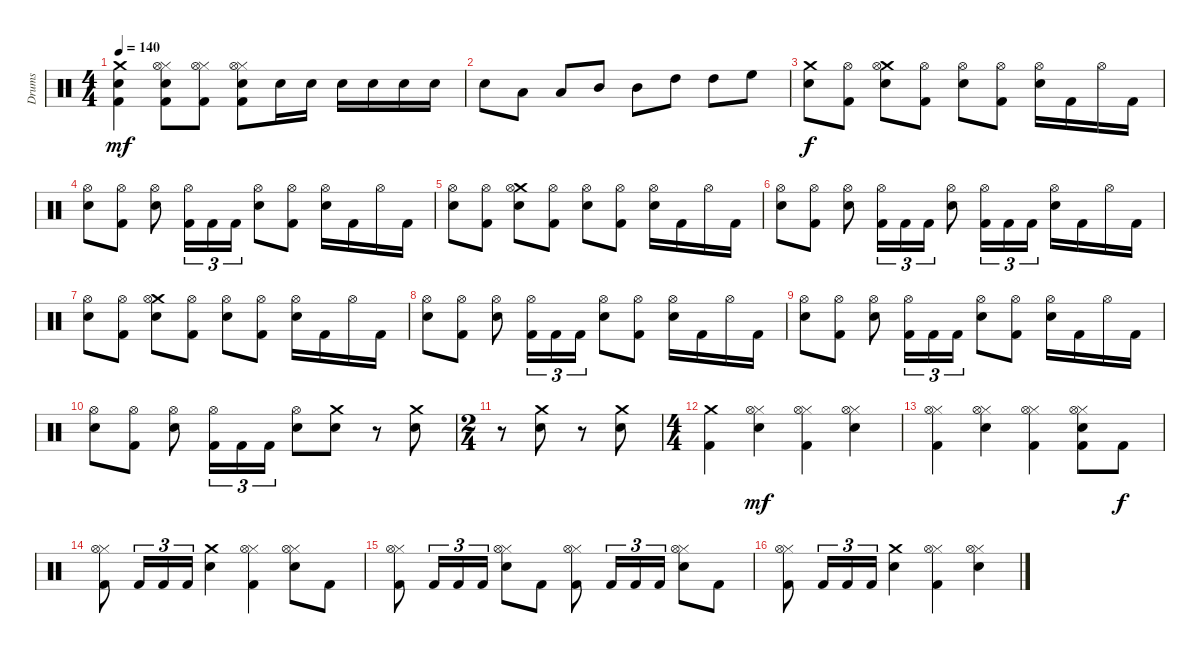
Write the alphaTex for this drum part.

\track ("Drums" "Drums") {instrument percussion}
\staff {score}
\articulation defaults
\ts (4 4)
\tempo 140
\clef neutral
\ks c
("Crash medium (hit)" "Electric Snare (hit)" "Kick (hit) 2").4{dy mf} ("Hi-Hat (closed)" "Hi-Hat (open)" "Electric Snare (hit)" "Kick (hit) 2").8 ("Hi-Hat (closed)" "Hi-Hat (open)" "Kick (hit) 2").8 ("Hi-Hat (closed)" "Hi-Hat (open)" "Electric Snare (hit)" "Kick (hit) 2").8 "Electric Snare (hit)".16 "Electric Snare (hit)".16 "Electric Snare (hit)".16 "Electric Snare (hit)".16 "Electric Snare (hit)".16 "Electric Snare (hit)".16 |
"Electric Snare (hit)".8 "Low Tom (hit)".8 "Low Tom (hit)".8 "Mid Tom (hit)".8 "Mid Tom (hit)".8 "High Tom (hit)".8 "High Tom (hit)".8 "High Floor Tom (hit)".8 |
("Crash medium (hit)" "Electric Snare (hit)").8{dy f} ("Hi-Hat (open)" "Kick (hit) 2").8 ("Crash medium (hit)" "Hi-Hat (open)" "Electric Snare (hit)").8 ("Hi-Hat (open)" "Kick (hit) 2").8 ("Hi-Hat (open)" "Electric Snare (hit)").8 ("Hi-Hat (open)" "Kick (hit) 2").8 ("Hi-Hat (open)" "Electric Snare (hit)").16 "Kick (hit) 2".16 "Hi-Hat (open)".16 "Kick (hit) 2".16 |
("Hi-Hat (open)" "Electric Snare (hit)").8 ("Hi-Hat (open)" "Kick (hit) 2").8 ("Hi-Hat (open)" "Electric Snare (hit)").8 ("Hi-Hat (open)" "Kick (hit) 2").16{tu (3 2)} "Kick (hit) 2".16{tu (3 2)} "Kick (hit) 2".16{tu (3 2)} ("Hi-Hat (open)" "Electric Snare (hit)").8 ("Hi-Hat (open)" "Kick (hit) 2").8 ("Hi-Hat (open)" "Electric Snare (hit)").16 "Kick (hit) 2".16 "Hi-Hat (open)".16 "Kick (hit) 2".16 |
("Hi-Hat (open)" "Electric Snare (hit)").8 ("Hi-Hat (open)" "Kick (hit) 2").8 ("Crash medium (hit)" "Hi-Hat (open)" "Electric Snare (hit)").8 ("Hi-Hat (open)" "Kick (hit) 2").8 ("Hi-Hat (open)" "Electric Snare (hit)").8 ("Hi-Hat (open)" "Kick (hit) 2").8 ("Hi-Hat (open)" "Electric Snare (hit)").16 "Kick (hit) 2".16 "Hi-Hat (open)".16 "Kick (hit) 2".16 |
("Hi-Hat (open)" "Electric Snare (hit)").8 ("Hi-Hat (open)" "Kick (hit) 2").8 ("Hi-Hat (open)" "Electric Snare (hit)").8 ("Hi-Hat (open)" "Kick (hit) 2").16{tu (3 2)} "Kick (hit) 2".16{tu (3 2)} "Kick (hit) 2".16{tu (3 2)} ("Hi-Hat (open)" "Electric Snare (hit)").8 ("Hi-Hat (open)" "Kick (hit) 2").16{tu (3 2)} "Kick (hit) 2".16{tu (3 2)} "Kick (hit) 2".16{tu (3 2)} ("Hi-Hat (open)" "Electric Snare (hit)").16 "Kick (hit) 2".16 "Hi-Hat (open)".16 "Kick (hit) 2".16 |
("Hi-Hat (open)" "Electric Snare (hit)").8 ("Hi-Hat (open)" "Kick (hit) 2").8 ("Crash medium (hit)" "Hi-Hat (open)" "Electric Snare (hit)").8 ("Hi-Hat (open)" "Kick (hit) 2").8 ("Hi-Hat (open)" "Electric Snare (hit)").8 ("Hi-Hat (open)" "Kick (hit) 2").8 ("Hi-Hat (open)" "Electric Snare (hit)").16 "Kick (hit) 2".16 "Hi-Hat (open)".16 "Kick (hit) 2".16 |
("Hi-Hat (open)" "Electric Snare (hit)").8 ("Hi-Hat (open)" "Kick (hit) 2").8 ("Hi-Hat (open)" "Electric Snare (hit)").8 ("Hi-Hat (open)" "Kick (hit) 2").16{tu (3 2)} "Kick (hit) 2".16{tu (3 2)} "Kick (hit) 2".16{tu (3 2)} ("Hi-Hat (open)" "Electric Snare (hit)").8 ("Hi-Hat (open)" "Kick (hit) 2").8 ("Hi-Hat (open)" "Electric Snare (hit)").16 "Kick (hit) 2".16 "Hi-Hat (open)".16 "Kick (hit) 2".16 |
("Hi-Hat (open)" "Electric Snare (hit)").8 ("Hi-Hat (open)" "Kick (hit) 2").8 ("Hi-Hat (open)" "Electric Snare (hit)").8 ("Hi-Hat (open)" "Kick (hit) 2").16{tu (3 2)} "Kick (hit) 2".16{tu (3 2)} "Kick (hit) 2".16{tu (3 2)} ("Hi-Hat (open)" "Electric Snare (hit)").8 ("Hi-Hat (open)" "Kick (hit) 2").8 ("Hi-Hat (open)" "Electric Snare (hit)").16 "Kick (hit) 2".16 "Hi-Hat (open)".16 "Kick (hit) 2".16 |
("Hi-Hat (open)" "Electric Snare (hit)").8 ("Hi-Hat (open)" "Kick (hit) 2").8 ("Hi-Hat (open)" "Electric Snare (hit)").8 ("Hi-Hat (open)" "Kick (hit) 2").16{tu (3 2)} "Kick (hit) 2".16{tu (3 2)} "Kick (hit) 2".16{tu (3 2)} ("Hi-Hat (open)" "Electric Snare (hit)").8 ("Crash medium (hit)" "Electric Snare (hit)").8 r.8 ("Crash medium (hit)" "Electric Snare (hit)").8 |
\ts (2 4)
r.8 ("Crash medium (hit)" "Electric Snare (hit)").8 r.8 ("Crash medium (hit)" "Electric Snare (hit)").8 |
\ts (4 4)
("Crash medium (hit)" "Kick (hit) 2").4 ("Hi-Hat (closed)" "Hi-Hat (open)" "Electric Snare (hit)").4{dy mf} ("Hi-Hat (closed)" "Hi-Hat (open)" "Kick (hit) 2").4 ("Hi-Hat (closed)" "Hi-Hat (open)" "Electric Snare (hit)").4 |
("Hi-Hat (closed)" "Hi-Hat (open)" "Kick (hit) 2").4 ("Hi-Hat (closed)" "Hi-Hat (open)" "Electric Snare (hit)").4 ("Hi-Hat (closed)" "Hi-Hat (open)" "Kick (hit) 2").4 ("Hi-Hat (closed)" "Hi-Hat (open)" "Electric Snare (hit)" "Kick (hit) 2").8 "Kick (hit) 2".8{dy f} |
("Hi-Hat (closed)" "Hi-Hat (open)" "Kick (hit) 2").8 "Kick (hit) 2".16{tu (3 2)} "Kick (hit) 2".16{tu (3 2)} "Kick (hit) 2".16{tu (3 2)} ("Crash medium (hit)" "Electric Snare (hit)").4 ("Hi-Hat (closed)" "Hi-Hat (open)" "Kick (hit) 2").4 ("Hi-Hat (closed)" "Hi-Hat (open)" "Electric Snare (hit)").8 "Kick (hit) 2".8 |
("Hi-Hat (closed)" "Hi-Hat (open)" "Kick (hit) 2").8 "Kick (hit) 2".16{tu (3 2)} "Kick (hit) 2".16{tu (3 2)} "Kick (hit) 2".16{tu (3 2)} ("Hi-Hat (closed)" "Hi-Hat (open)" "Electric Snare (hit)").8 "Kick (hit) 2".8 ("Hi-Hat (closed)" "Hi-Hat (open)" "Kick (hit) 2").8 "Kick (hit) 2".16{tu (3 2)} "Kick (hit) 2".16{tu (3 2)} "Kick (hit) 2".16{tu (3 2)} ("Hi-Hat (closed)" "Hi-Hat (open)" "Electric Snare (hit)").8 "Kick (hit) 2".8 |
("Hi-Hat (closed)" "Hi-Hat (open)" "Kick (hit) 2").8 "Kick (hit) 2".16{tu (3 2)} "Kick (hit) 2".16{tu (3 2)} "Kick (hit) 2".16{tu (3 2)} ("Crash medium (hit)" "Electric Snare (hit)").4 ("Hi-Hat (closed)" "Hi-Hat (open)" "Kick (hit) 2").4 ("Hi-Hat (closed)" "Hi-Hat (open)" "Electric Snare (hit)").4
